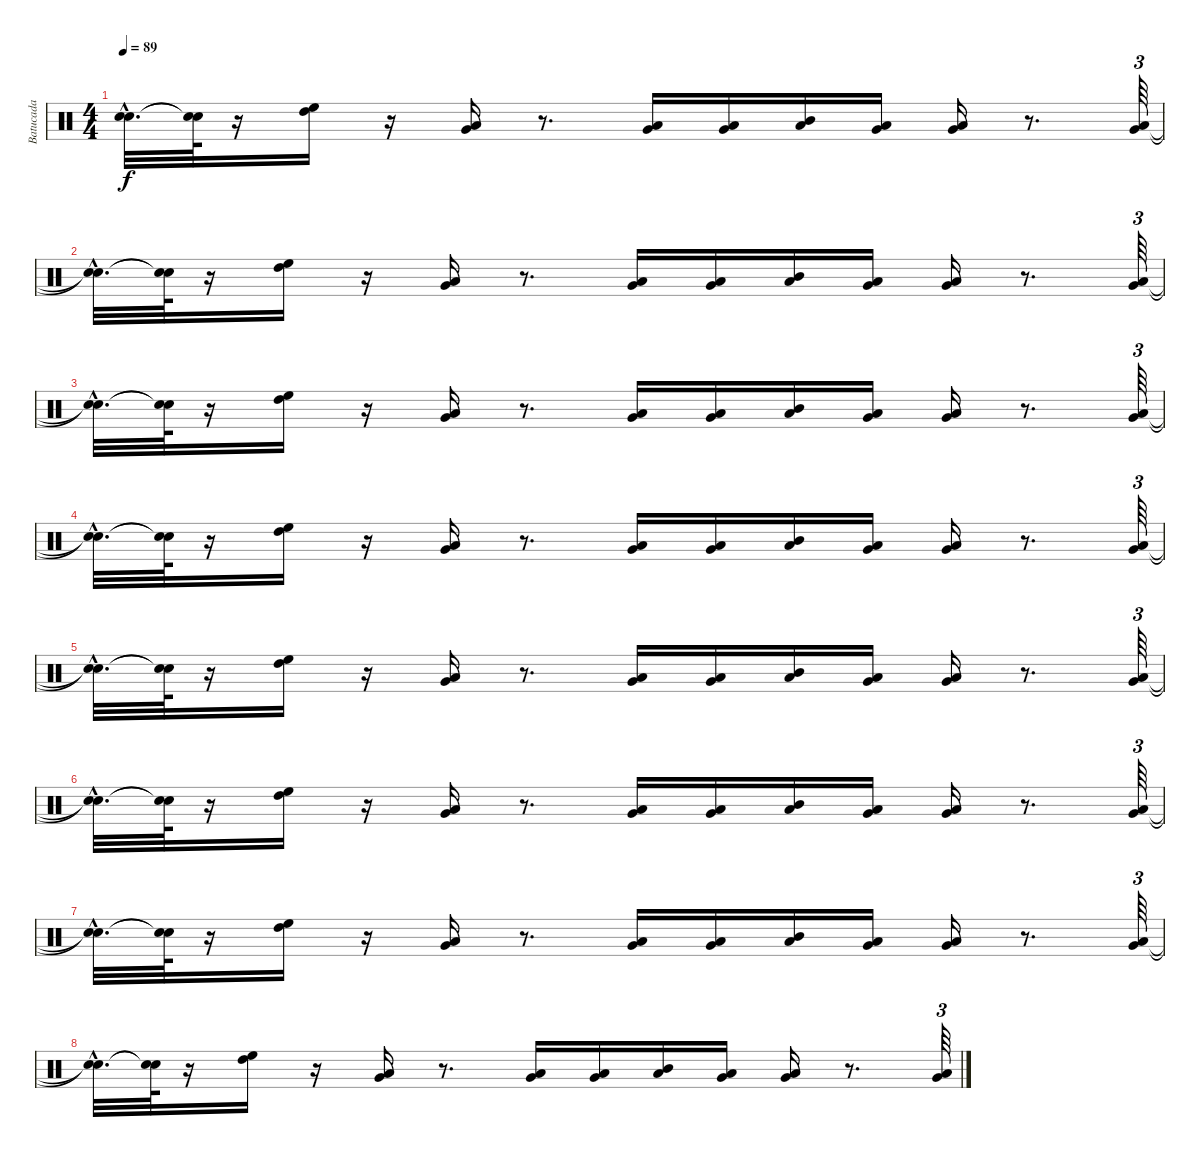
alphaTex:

\track ("Batucada" "Batucada") {instrument percussion}
\staff {score}
\articulation defaults
\ts (4 4)
\tempo 89
\clef neutral
\ks c
("Snare (hit)"{hac t} "Snare (hit)"{hac t}).32{d dy f} ("Snare (hit)"{t} "Snare (hit)"{t}).64 r.16 ("High Floor Tom (hit)" "High Tom (hit)").16 r.16 ("Very Low Tom (hit)" "Low Floor Tom (hit)").16 r.8{d} ("Very Low Tom (hit)" "Low Floor Tom (hit)").16 ("Very Low Tom (hit)" "Low Floor Tom (hit)").16 ("Mid Tom (hit)" "Low Floor Tom (hit)").16 ("Very Low Tom (hit)" "Low Floor Tom (hit)").16 ("Very Low Tom (hit)" "Low Floor Tom (hit)").16 r.8{d} ("Very Low Tom (hit)" "Low Floor Tom (hit)").64{tu (3 2)} |
("Snare (hit)"{hac t} "Snare (hit)"{hac t}).32{d} ("Snare (hit)"{t} "Snare (hit)"{t}).64 r.16 ("High Floor Tom (hit)" "High Tom (hit)").16 r.16 ("Very Low Tom (hit)" "Low Floor Tom (hit)").16 r.8{d} ("Very Low Tom (hit)" "Low Floor Tom (hit)").16 ("Very Low Tom (hit)" "Low Floor Tom (hit)").16 ("Mid Tom (hit)" "Low Floor Tom (hit)").16 ("Very Low Tom (hit)" "Low Floor Tom (hit)").16 ("Very Low Tom (hit)" "Low Floor Tom (hit)").16 r.8{d} ("Very Low Tom (hit)" "Low Floor Tom (hit)").64{tu (3 2)} |
("Snare (hit)"{hac t} "Snare (hit)"{hac t}).32{d} ("Snare (hit)"{t} "Snare (hit)"{t}).64 r.16 ("High Floor Tom (hit)" "High Tom (hit)").16 r.16 ("Very Low Tom (hit)" "Low Floor Tom (hit)").16 r.8{d} ("Very Low Tom (hit)" "Low Floor Tom (hit)").16 ("Very Low Tom (hit)" "Low Floor Tom (hit)").16 ("Mid Tom (hit)" "Low Floor Tom (hit)").16 ("Very Low Tom (hit)" "Low Floor Tom (hit)").16 ("Very Low Tom (hit)" "Low Floor Tom (hit)").16 r.8{d} ("Very Low Tom (hit)" "Low Floor Tom (hit)").64{tu (3 2)} |
("Snare (hit)"{hac t} "Snare (hit)"{hac t}).32{d} ("Snare (hit)"{t} "Snare (hit)"{t}).64 r.16 ("High Floor Tom (hit)" "High Tom (hit)").16 r.16 ("Very Low Tom (hit)" "Low Floor Tom (hit)").16 r.8{d} ("Very Low Tom (hit)" "Low Floor Tom (hit)").16 ("Very Low Tom (hit)" "Low Floor Tom (hit)").16 ("Mid Tom (hit)" "Low Floor Tom (hit)").16 ("Very Low Tom (hit)" "Low Floor Tom (hit)").16 ("Very Low Tom (hit)" "Low Floor Tom (hit)").16 r.8{d} ("Very Low Tom (hit)" "Low Floor Tom (hit)").64{tu (3 2)} |
("Snare (hit)"{hac t} "Snare (hit)"{hac t}).32{d} ("Snare (hit)"{t} "Snare (hit)"{t}).64 r.16 ("High Floor Tom (hit)" "High Tom (hit)").16 r.16 ("Very Low Tom (hit)" "Low Floor Tom (hit)").16 r.8{d} ("Very Low Tom (hit)" "Low Floor Tom (hit)").16 ("Very Low Tom (hit)" "Low Floor Tom (hit)").16 ("Mid Tom (hit)" "Low Floor Tom (hit)").16 ("Very Low Tom (hit)" "Low Floor Tom (hit)").16 ("Very Low Tom (hit)" "Low Floor Tom (hit)").16 r.8{d} ("Very Low Tom (hit)" "Low Floor Tom (hit)").64{tu (3 2)} |
("Snare (hit)"{hac t} "Snare (hit)"{hac t}).32{d} ("Snare (hit)"{t} "Snare (hit)"{t}).64 r.16 ("High Floor Tom (hit)" "High Tom (hit)").16 r.16 ("Very Low Tom (hit)" "Low Floor Tom (hit)").16{volume 14} r.8{d} ("Very Low Tom (hit)" "Low Floor Tom (hit)").16{volume 12 balance 8} ("Very Low Tom (hit)" "Low Floor Tom (hit)").16{volume 12} ("Mid Tom (hit)" "Low Floor Tom (hit)").16{volume 12} ("Very Low Tom (hit)" "Low Floor Tom (hit)").16{volume 12} ("Very Low Tom (hit)" "Low Floor Tom (hit)").16{volume 11} r.8{d} ("Very Low Tom (hit)" "Low Floor Tom (hit)").64{tu (3 2) volume 10} |
("Snare (hit)"{hac t} "Snare (hit)"{hac t}).32{d} ("Snare (hit)"{t} "Snare (hit)"{t}).64 r.16 ("High Floor Tom (hit)" "High Tom (hit)").16{volume 9} r.16 ("Very Low Tom (hit)" "Low Floor Tom (hit)").16{volume 9} r.8{d} ("Very Low Tom (hit)" "Low Floor Tom (hit)").16{volume 8} ("Very Low Tom (hit)" "Low Floor Tom (hit)").16{volume 7} ("Mid Tom (hit)" "Low Floor Tom (hit)").16{volume 7} ("Very Low Tom (hit)" "Low Floor Tom (hit)").16{volume 7} ("Very Low Tom (hit)" "Low Floor Tom (hit)").16{volume 6} r.8{d} ("Very Low Tom (hit)" "Low Floor Tom (hit)").64{tu (3 2) volume 5} |
("Snare (hit)"{hac t} "Snare (hit)"{hac t}).32{d} ("Snare (hit)"{t} "Snare (hit)"{t}).64 r.16 ("High Floor Tom (hit)" "High Tom (hit)").16{volume 5} r.16 ("Very Low Tom (hit)" "Low Floor Tom (hit)").16{volume 4} r.8{d} ("Very Low Tom (hit)" "Low Floor Tom (hit)").16{volume 3} ("Very Low Tom (hit)" "Low Floor Tom (hit)").16{volume 2} ("Mid Tom (hit)" "Low Floor Tom (hit)").16{volume 2} ("Very Low Tom (hit)" "Low Floor Tom (hit)").16{volume 2} ("Very Low Tom (hit)" "Low Floor Tom (hit)").16{volume 2} r.8{d} ("Very Low Tom (hit)" "Low Floor Tom (hit)").64{tu (3 2) volume 0}
